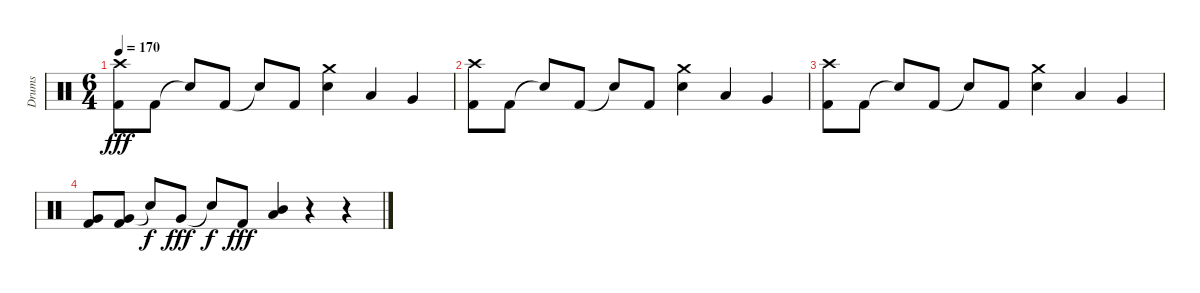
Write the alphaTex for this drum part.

\track ("Drums" "Drums") {instrument percussion}
\staff {score}
\articulation defaults
\ts (6 4)
\tempo 170
\clef neutral
\ks c
("Crash high (hit)" "Kick (hit) 2").8{dy fff} "Kick (hit) 2".8 "Snare (hit)"{t}.8 "Kick (hit) 2".8 "Snare (hit)"{t}.8 "Kick (hit) 2".8 ("Crash medium (hit)" "Snare (hit) 2").4 "Low Tom (hit)".4 "Very Low Tom (hit)".4 |
("Crash high (hit)" "Kick (hit) 2").8 "Kick (hit) 2".8 "Snare (hit)"{t}.8 "Kick (hit) 2".8 "Snare (hit)"{t}.8 "Kick (hit) 2".8 ("Crash medium (hit)" "Snare (hit) 2").4 "Low Tom (hit)".4 "Very Low Tom (hit)".4 |
("Crash high (hit)" "Kick (hit) 2").8 "Kick (hit) 2".8 "Snare (hit)"{t}.8 "Kick (hit) 2".8 "Snare (hit)"{t}.8 "Kick (hit) 2".8 ("Crash medium (hit)" "Snare (hit) 2").4 "Low Tom (hit)".4 "Very Low Tom (hit)".4 |
("Very Low Tom (hit)" "Kick (hit) 2").8 ("Very Low Tom (hit)" "Kick (hit) 2").8 "Snare (hit)"{t}.8{dy f} "Very Low Tom (hit)".8{dy fff} "Snare (hit)"{t}.8{dy f} "Kick (hit) 2".8{dy fff} ("Low Tom (hit)" "Mid Tom (hit)").4 r.4 r.4
